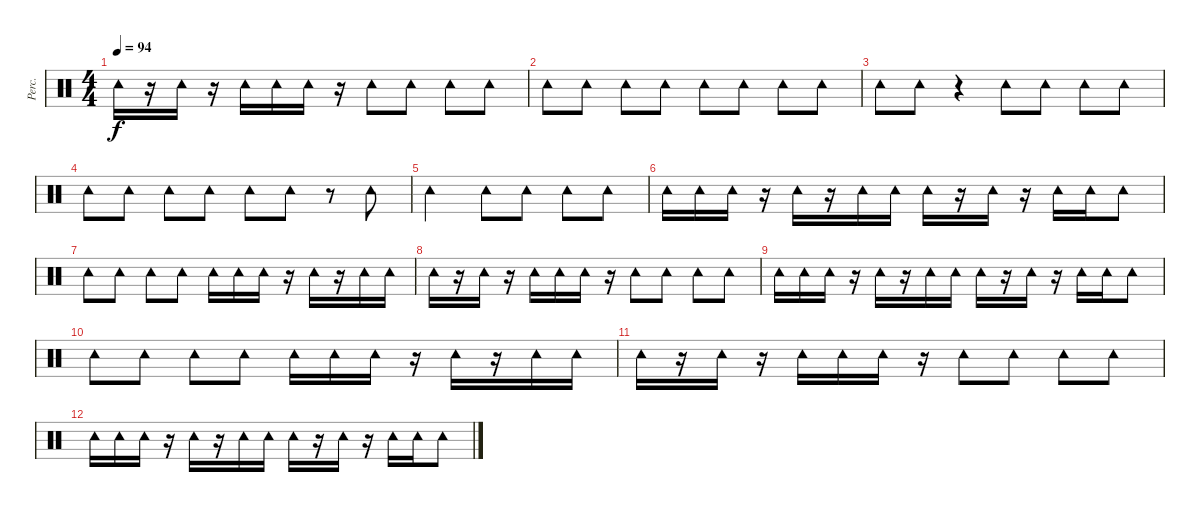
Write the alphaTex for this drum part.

\track ("Perc." "Perc.") {instrument percussion}
\staff {score}
\articulation defaults
\ts (4 4)
\tempo 94
\clef neutral
\ks c "Tambourine (hit)".16{dy f}
r.16 "Tambourine (hit)".16 r.16 "Tambourine (hit)".16 "Tambourine (hit)".16 "Tambourine (hit)".16 r.16 "Tambourine (hit)".8 "Tambourine (hit)".8 "Tambourine (hit)".8 "Tambourine (hit)".8 |
"Tambourine (hit)".8 "Tambourine (hit)".8 "Tambourine (hit)".8 "Tambourine (hit)".8 "Tambourine (hit)".8 "Tambourine (hit)".8 "Tambourine (hit)".8 "Tambourine (hit)".8 |
"Tambourine (hit)".8 "Tambourine (hit)".8 r.4 "Tambourine (hit)".8 "Tambourine (hit)".8 "Tambourine (hit)".8 "Tambourine (hit)".8 |
"Tambourine (hit)".8 "Tambourine (hit)".8 "Tambourine (hit)".8 "Tambourine (hit)".8 "Tambourine (hit)".8 "Tambourine (hit)".8 r.8 "Tambourine (hit)".8 |
"Tambourine (hit)".2 "Tambourine (hit)".8 "Tambourine (hit)".8 "Tambourine (hit)".8 "Tambourine (hit)".8 |
"Tambourine (hit)".16 "Tambourine (hit)".16 "Tambourine (hit)".16 r.16 "Tambourine (hit)".16 r.16 "Tambourine (hit)".16 "Tambourine (hit)".16 "Tambourine (hit)".16 r.16 "Tambourine (hit)".16 r.16 "Tambourine (hit)".16 "Tambourine (hit)".16 "Tambourine (hit)".8 |
"Tambourine (hit)".8 "Tambourine (hit)".8 "Tambourine (hit)".8 "Tambourine (hit)".8 "Tambourine (hit)".16 "Tambourine (hit)".16 "Tambourine (hit)".16 r.16 "Tambourine (hit)".16 r.16 "Tambourine (hit)".16 "Tambourine (hit)".16 |
"Tambourine (hit)".16 r.16 "Tambourine (hit)".16 r.16 "Tambourine (hit)".16 "Tambourine (hit)".16 "Tambourine (hit)".16 r.16 "Tambourine (hit)".8 "Tambourine (hit)".8 "Tambourine (hit)".8 "Tambourine (hit)".8 |
"Tambourine (hit)".16 "Tambourine (hit)".16 "Tambourine (hit)".16 r.16 "Tambourine (hit)".16 r.16 "Tambourine (hit)".16 "Tambourine (hit)".16 "Tambourine (hit)".16 r.16 "Tambourine (hit)".16 r.16 "Tambourine (hit)".16 "Tambourine (hit)".16 "Tambourine (hit)".8 |
"Tambourine (hit)".8 "Tambourine (hit)".8 "Tambourine (hit)".8 "Tambourine (hit)".8 "Tambourine (hit)".16 "Tambourine (hit)".16 "Tambourine (hit)".16 r.16 "Tambourine (hit)".16 r.16 "Tambourine (hit)".16 "Tambourine (hit)".16 |
"Tambourine (hit)".16 r.16 "Tambourine (hit)".16 r.16 "Tambourine (hit)".16 "Tambourine (hit)".16 "Tambourine (hit)".16 r.16 "Tambourine (hit)".8 "Tambourine (hit)".8 "Tambourine (hit)".8 "Tambourine (hit)".8 |
"Tambourine (hit)".16 "Tambourine (hit)".16 "Tambourine (hit)".16 r.16 "Tambourine (hit)".16 r.16 "Tambourine (hit)".16 "Tambourine (hit)".16 "Tambourine (hit)".16 r.16 "Tambourine (hit)".16 r.16 "Tambourine (hit)".16 "Tambourine (hit)".16 "Tambourine (hit)".8
